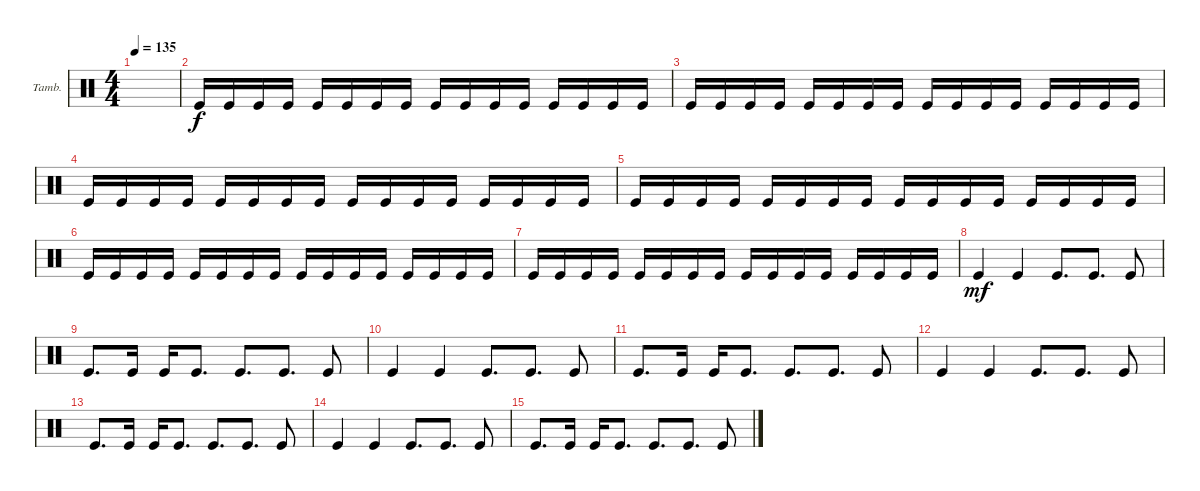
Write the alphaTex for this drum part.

\defaultSystemsLayout 4
\bracketExtendMode groupsimilarinstruments
\firstSystemTrackNameOrientation horizontal
\otherSystemsTrackNameOrientation horizontal
\track ("Tambourine" "Tamb.") {instrument percussion}
\staff {score}
\articulation defaults
\ts (4 4)
\tempo 135
\clef neutral
\scale
0.333333
\ks c
|
\scale
0.333333 "Kick (hit)".16 "Kick (hit)".16 "Kick (hit)".16 "Kick (hit)".16 "Kick (hit)".16 "Kick (hit)".16 "Kick (hit)".16 "Kick (hit)".16 "Kick (hit)".16 "Kick (hit)".16 "Kick (hit)".16 "Kick (hit)".16 "Kick (hit)".16 "Kick (hit)".16 "Kick (hit)".16 "Kick (hit)".16 |
\scale
0.333333 "Kick (hit)".16 "Kick (hit)".16 "Kick (hit)".16 "Kick (hit)".16 "Kick (hit)".16 "Kick (hit)".16 "Kick (hit)".16 "Kick (hit)".16 "Kick (hit)".16 "Kick (hit)".16 "Kick (hit)".16 "Kick (hit)".16 "Kick (hit)".16 "Kick (hit)".16 "Kick (hit)".16 "Kick (hit)".16 |
\scale
0.333333 "Kick (hit)".16 "Kick (hit)".16 "Kick (hit)".16 "Kick (hit)".16 "Kick (hit)".16 "Kick (hit)".16 "Kick (hit)".16 "Kick (hit)".16 "Kick (hit)".16 "Kick (hit)".16 "Kick (hit)".16 "Kick (hit)".16 "Kick (hit)".16 "Kick (hit)".16 "Kick (hit)".16 "Kick (hit)".16 |
\scale
0.333333 "Kick (hit)".16 "Kick (hit)".16 "Kick (hit)".16 "Kick (hit)".16 "Kick (hit)".16 "Kick (hit)".16 "Kick (hit)".16 "Kick (hit)".16 "Kick (hit)".16 "Kick (hit)".16 "Kick (hit)".16 "Kick (hit)".16 "Kick (hit)".16 "Kick (hit)".16 "Kick (hit)".16 "Kick (hit)".16 |
\scale
0.333333 "Kick (hit)".16 "Kick (hit)".16 "Kick (hit)".16 "Kick (hit)".16 "Kick (hit)".16 "Kick (hit)".16 "Kick (hit)".16 "Kick (hit)".16 "Kick (hit)".16 "Kick (hit)".16 "Kick (hit)".16 "Kick (hit)".16 "Kick (hit)".16 "Kick (hit)".16 "Kick (hit)".16 "Kick (hit)".16 |
\scale
0.333333 "Kick (hit)".16 "Kick (hit)".16 "Kick (hit)".16 "Kick (hit)".16 "Kick (hit)".16 "Kick (hit)".16 "Kick (hit)".16 "Kick (hit)".16 "Kick (hit)".16 "Kick (hit)".16 "Kick (hit)".16 "Kick (hit)".16 "Kick (hit)".16 "Kick (hit)".16 "Kick (hit)".16 "Kick (hit)".16 |
\scale
0.333333 "Kick (hit)".4{dy mf} "Kick (hit)".4 "Kick (hit)".8{d} "Kick (hit)".8{d} "Kick (hit)".8 |
\scale
0.333333 "Kick (hit)".8{d} "Kick (hit)".16 "Kick (hit)".16 "Kick (hit)".8{d} "Kick (hit)".8{d} "Kick (hit)".8{d} "Kick (hit)".8 |
\scale
0.333333 "Kick (hit)".4 "Kick (hit)".4 "Kick (hit)".8{d} "Kick (hit)".8{d} "Kick (hit)".8 |
\scale
0.333333 "Kick (hit)".8{d} "Kick (hit)".16 "Kick (hit)".16 "Kick (hit)".8{d} "Kick (hit)".8{d} "Kick (hit)".8{d} "Kick (hit)".8 |
\scale
0.333333 "Kick (hit)".4 "Kick (hit)".4 "Kick (hit)".8{d} "Kick (hit)".8{d} "Kick (hit)".8 |
\scale
0.333333 "Kick (hit)".8{d} "Kick (hit)".16 "Kick (hit)".16 "Kick (hit)".8{d} "Kick (hit)".8{d} "Kick (hit)".8{d} "Kick (hit)".8 |
\scale
0.333333 "Kick (hit)".4 "Kick (hit)".4 "Kick (hit)".8{d} "Kick (hit)".8{d} "Kick (hit)".8 |
\scale
0.333333 "Kick (hit)".8{d} "Kick (hit)".16 "Kick (hit)".16 "Kick (hit)".8{d} "Kick (hit)".8{d} "Kick (hit)".8{d} "Kick (hit)".8 |
\scale
0.333333
